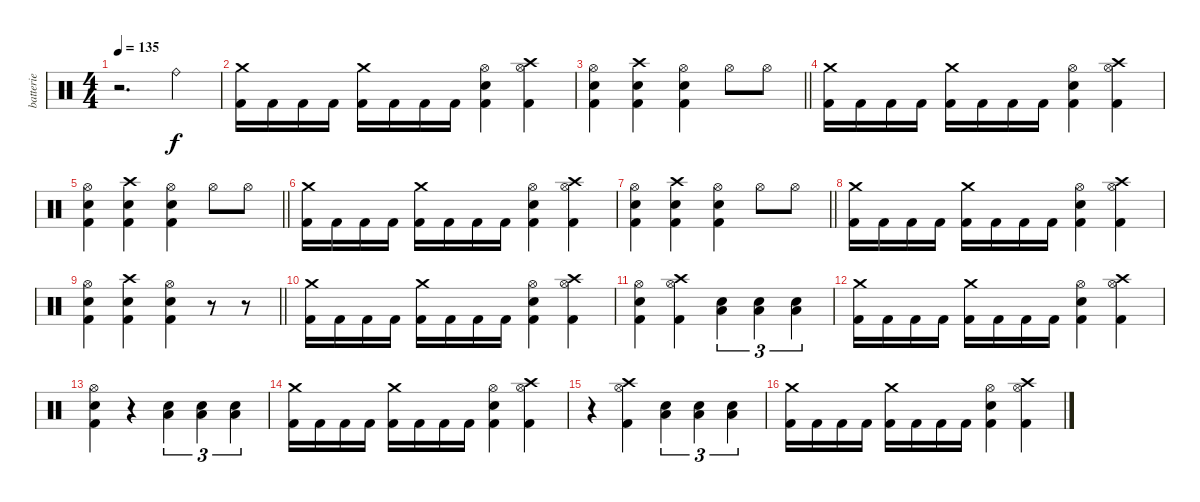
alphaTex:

\track ("batterie" "batterie") {instrument percussion}
\staff {score}
\articulation defaults
\ts (4 4)
\tempo 135
\clef neutral
\ks c
r.2{d dy f} "Ride (bell)".4 |
("Crash medium (hit)" "Kick (hit) 2").16 "Kick (hit) 2".16 "Kick (hit) 2".16 "Kick (hit) 2".16 ("Crash medium (hit)" "Kick (hit) 2").16 "Kick (hit) 2".16 "Kick (hit) 2".16 "Kick (hit) 2".16 ("Snare (hit) 2" "Hi-Hat (open)" "Kick (hit) 2").4 ("Crash high (hit)" "Hi-Hat (open)" "Kick (hit) 2").4 |
\barLineRight lightlight
("Snare (hit) 2" "Hi-Hat (open)" "Kick (hit) 2").4 ("Crash high (hit)" "Snare (hit) 2" "Kick (hit) 2").4 ("Snare (hit) 2" "Hi-Hat (open)" "Kick (hit) 2").4 "Hi-Hat (open)".8 "Hi-Hat (open)".8 |
("Crash medium (hit)" "Kick (hit) 2").16 "Kick (hit) 2".16 "Kick (hit) 2".16 "Kick (hit) 2".16 ("Crash medium (hit)" "Kick (hit) 2").16 "Kick (hit) 2".16 "Kick (hit) 2".16 "Kick (hit) 2".16 ("Snare (hit) 2" "Hi-Hat (open)" "Kick (hit) 2").4 ("Crash high (hit)" "Hi-Hat (open)" "Kick (hit) 2").4 |
\barLineRight lightlight
("Snare (hit) 2" "Hi-Hat (open)" "Kick (hit) 2").4 ("Crash high (hit)" "Snare (hit) 2" "Kick (hit) 2").4 ("Snare (hit) 2" "Hi-Hat (open)" "Kick (hit) 2").4 "Hi-Hat (open)".8 "Hi-Hat (open)".8 |
("Crash medium (hit)" "Kick (hit) 2").16 "Kick (hit) 2".16 "Kick (hit) 2".16 "Kick (hit) 2".16 ("Crash medium (hit)" "Kick (hit) 2").16 "Kick (hit) 2".16 "Kick (hit) 2".16 "Kick (hit) 2".16 ("Snare (hit) 2" "Hi-Hat (open)" "Kick (hit) 2").4 ("Crash high (hit)" "Hi-Hat (open)" "Kick (hit) 2").4 |
\barLineRight lightlight
("Snare (hit) 2" "Hi-Hat (open)" "Kick (hit) 2").4 ("Crash high (hit)" "Snare (hit) 2" "Kick (hit) 2").4 ("Snare (hit) 2" "Hi-Hat (open)" "Kick (hit) 2").4 "Hi-Hat (open)".8 "Hi-Hat (open)".8 |
("Crash medium (hit)" "Kick (hit) 2").16 "Kick (hit) 2".16 "Kick (hit) 2".16 "Kick (hit) 2".16 ("Crash medium (hit)" "Kick (hit) 2").16 "Kick (hit) 2".16 "Kick (hit) 2".16 "Kick (hit) 2".16 ("Snare (hit) 2" "Hi-Hat (open)" "Kick (hit) 2").4 ("Crash high (hit)" "Hi-Hat (open)" "Kick (hit) 2").4 |
\barLineRight lightlight
("Snare (hit) 2" "Hi-Hat (open)" "Kick (hit) 2").4 ("Crash high (hit)" "Snare (hit) 2" "Kick (hit) 2").4 ("Snare (hit) 2" "Hi-Hat (open)" "Kick (hit) 2").4 r.8 r.8 |
\section ("" "")
("Crash medium (hit)" "Kick (hit) 2").16 "Kick (hit) 2".16 "Kick (hit) 2".16 "Kick (hit) 2".16 ("Crash medium (hit)" "Kick (hit) 2").16 "Kick (hit) 2".16 "Kick (hit) 2".16 "Kick (hit) 2".16 ("Snare (hit) 2" "Hi-Hat (open)" "Kick (hit) 2").4 ("Crash high (hit)" "Hi-Hat (open)" "Kick (hit) 2").4 |
("Snare (hit) 2" "Hi-Hat (open)" "Kick (hit) 2").4 ("Crash high (hit)" "Hi-Hat (open)" "Kick (hit) 2").4 ("Electric Snare (hit)" "Low Floor Tom (hit)").4{tu (3 2)} ("Electric Snare (hit)" "Low Floor Tom (hit)").4{tu (3 2)} ("Electric Snare (hit)" "Low Floor Tom (hit)").4{tu (3 2)} |
("Crash medium (hit)" "Kick (hit) 2").16 "Kick (hit) 2".16 "Kick (hit) 2".16 "Kick (hit) 2".16 ("Crash medium (hit)" "Kick (hit) 2").16 "Kick (hit) 2".16 "Kick (hit) 2".16 "Kick (hit) 2".16 ("Snare (hit) 2" "Hi-Hat (open)" "Kick (hit) 2").4 ("Crash high (hit)" "Hi-Hat (open)" "Kick (hit) 2").4 |
("Snare (hit) 2" "Hi-Hat (open)" "Kick (hit) 2").4 r.4 ("Electric Snare (hit)" "Low Floor Tom (hit)").4{tu (3 2)} ("Electric Snare (hit)" "Low Floor Tom (hit)").4{tu (3 2)} ("Electric Snare (hit)" "Low Floor Tom (hit)").4{tu (3 2)} |
("Crash medium (hit)" "Kick (hit) 2").16 "Kick (hit) 2".16 "Kick (hit) 2".16 "Kick (hit) 2".16 ("Crash medium (hit)" "Kick (hit) 2").16 "Kick (hit) 2".16 "Kick (hit) 2".16 "Kick (hit) 2".16 ("Snare (hit) 2" "Hi-Hat (open)" "Kick (hit) 2").4 ("Crash high (hit)" "Hi-Hat (open)" "Kick (hit) 2").4 |
r.4 ("Crash high (hit)" "Hi-Hat (open)" "Kick (hit) 2").4 ("Electric Snare (hit)" "Low Floor Tom (hit)").4{tu (3 2)} ("Electric Snare (hit)" "Low Floor Tom (hit)").4{tu (3 2)} ("Electric Snare (hit)" "Low Floor Tom (hit)").4{tu (3 2)} |
("Crash medium (hit)" "Kick (hit) 2").16 "Kick (hit) 2".16 "Kick (hit) 2".16 "Kick (hit) 2".16 ("Crash medium (hit)" "Kick (hit) 2").16 "Kick (hit) 2".16 "Kick (hit) 2".16 "Kick (hit) 2".16 ("Snare (hit) 2" "Hi-Hat (open)" "Kick (hit) 2").4 ("Crash high (hit)" "Hi-Hat (open)" "Kick (hit) 2").4
